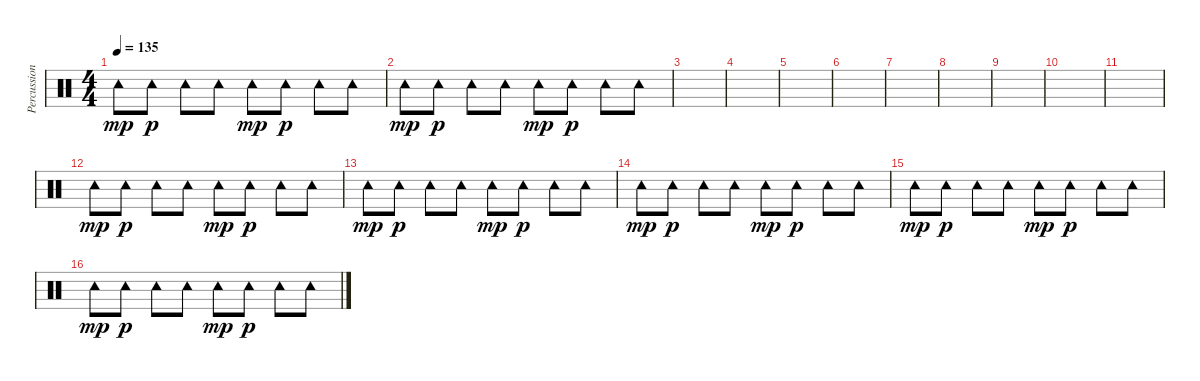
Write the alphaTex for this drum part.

\track ("Percussion2" "Percussion") {instrument percussion}
\staff {score}
\articulation defaults
\ts (4 4)
\tempo 135
\clef neutral
\ks c "Tambourine (hit)".8{dy mp} "Tambourine (hit)".8{dy p} "Tambourine (hit)".8 "Tambourine (hit)".8 "Tambourine (hit)".8{dy mp} "Tambourine (hit)".8{dy p} "Tambourine (hit)".8 "Tambourine (hit)".8
|
"Tambourine (hit)".8{dy mp} "Tambourine (hit)".8{dy p} "Tambourine (hit)".8 "Tambourine (hit)".8 "Tambourine (hit)".8{dy mp} "Tambourine (hit)".8{dy p} "Tambourine (hit)".8 "Tambourine (hit)".8 |
|
|
|
|
|
|
|
|
|
"Tambourine (hit)".8{dy mp} "Tambourine (hit)".8{dy p} "Tambourine (hit)".8 "Tambourine (hit)".8 "Tambourine (hit)".8{dy mp} "Tambourine (hit)".8{dy p} "Tambourine (hit)".8 "Tambourine (hit)".8 |
"Tambourine (hit)".8{dy mp} "Tambourine (hit)".8{dy p} "Tambourine (hit)".8 "Tambourine (hit)".8 "Tambourine (hit)".8{dy mp} "Tambourine (hit)".8{dy p} "Tambourine (hit)".8 "Tambourine (hit)".8 |
"Tambourine (hit)".8{dy mp} "Tambourine (hit)".8{dy p} "Tambourine (hit)".8 "Tambourine (hit)".8 "Tambourine (hit)".8{dy mp} "Tambourine (hit)".8{dy p} "Tambourine (hit)".8 "Tambourine (hit)".8 |
"Tambourine (hit)".8{dy mp} "Tambourine (hit)".8{dy p} "Tambourine (hit)".8 "Tambourine (hit)".8 "Tambourine (hit)".8{dy mp} "Tambourine (hit)".8{dy p} "Tambourine (hit)".8 "Tambourine (hit)".8 |
"Tambourine (hit)".8{dy mp} "Tambourine (hit)".8{dy p} "Tambourine (hit)".8 "Tambourine (hit)".8 "Tambourine (hit)".8{dy mp} "Tambourine (hit)".8{dy p} "Tambourine (hit)".8 "Tambourine (hit)".8
